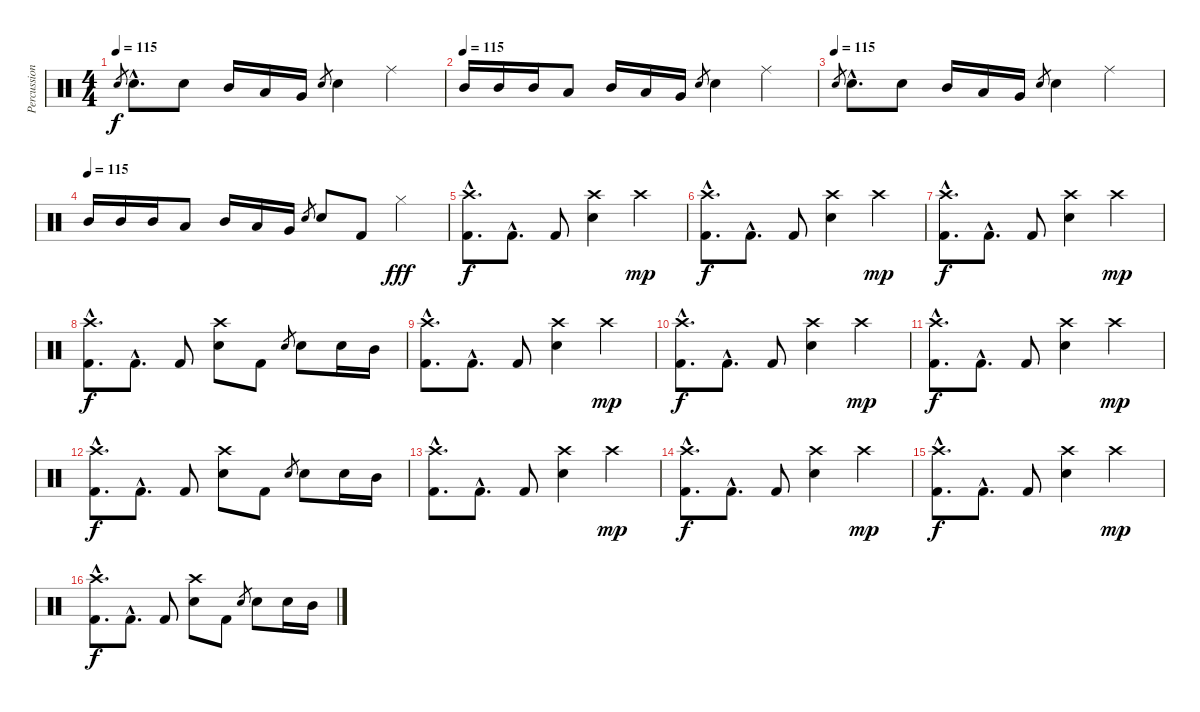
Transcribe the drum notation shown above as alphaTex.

\track ("Percussion" "Percussion") {instrument percussion}
\staff {score}
\articulation defaults
\ts (4 4)
\tempo 115
\clef neutral
\ks c "Electric Snare (hit)".8{gr dy f} "Electric Snare (hit)"{hac}.8{d} "Electric Snare (hit)".8 "Mid Tom (hit)".16 "Low Tom (hit)".16 "Very Low Tom (hit)".16 "Electric Snare (hit)".8{gr} "Electric Snare (hit)".4 "Ride (middle)".4
|
\tempo (115)
"Mid Tom (hit)".16 "Mid Tom (hit)".16 "Mid Tom (hit)".16 "Low Tom (hit)".8 "Mid Tom (hit)".16 "Low Tom (hit)".16 "Very Low Tom (hit)".16 "Electric Snare (hit)".8{gr} "Electric Snare (hit)".4 "Ride (middle)".4 |
\tempo (115)
"Electric Snare (hit)".8{gr} "Electric Snare (hit)"{hac}.8{d} "Electric Snare (hit)".8 "Mid Tom (hit)".16 "Low Tom (hit)".16 "Very Low Tom (hit)".16 "Electric Snare (hit)".8{gr} "Electric Snare (hit)".4 "Ride (middle)".4 |
\tempo (115)
"Mid Tom (hit)".16 "Mid Tom (hit)".16 "Mid Tom (hit)".16 "Low Tom (hit)".8 "Mid Tom (hit)".16 "Low Tom (hit)".16 "Very Low Tom (hit)".16 "Electric Snare (hit)".8{gr} "Electric Snare (hit)".8 "Kick (hit) 2".8 "Hi-Hat (closed)".4{dy fff} |
("Crash high (hit)"{hac} "Kick (hit) 2"{hac}).8{d dy f} "Kick (hit) 2"{hac}.8{d} "Kick (hit) 2".8 ("Crash high (hit)" "Electric Snare (hit)").4 "Crash high (hit)".4{dy mp} |
("Crash high (hit)"{hac} "Kick (hit) 2"{hac}).8{d dy f} "Kick (hit) 2"{hac}.8{d} "Kick (hit) 2".8 ("Crash high (hit)" "Electric Snare (hit)").4 "Crash high (hit)".4{dy mp} |
("Crash high (hit)"{hac} "Kick (hit) 2"{hac}).8{d dy f} "Kick (hit) 2"{hac}.8{d} "Kick (hit) 2".8 ("Crash high (hit)" "Electric Snare (hit)").4 "Crash high (hit)".4{dy mp} |
("Crash high (hit)"{hac} "Kick (hit) 2"{hac}).8{d dy f} "Kick (hit) 2"{hac}.8{d} "Kick (hit) 2".8 ("Crash high (hit)" "Electric Snare (hit)").8 "Kick (hit) 2".8 "Electric Snare (hit)".8{gr} "Electric Snare (hit)".8 "Electric Snare (hit)".16 "Mid Tom (hit)".16 |
("Crash high (hit)"{hac} "Kick (hit) 2"{hac}).8{d} "Kick (hit) 2"{hac}.8{d} "Kick (hit) 2".8 ("Crash high (hit)" "Electric Snare (hit)").4 "Crash high (hit)".4{dy mp} |
("Crash high (hit)"{hac} "Kick (hit) 2"{hac}).8{d dy f} "Kick (hit) 2"{hac}.8{d} "Kick (hit) 2".8 ("Crash high (hit)" "Electric Snare (hit)").4 "Crash high (hit)".4{dy mp} |
("Crash high (hit)"{hac} "Kick (hit) 2"{hac}).8{d dy f} "Kick (hit) 2"{hac}.8{d} "Kick (hit) 2".8 ("Crash high (hit)" "Electric Snare (hit)").4 "Crash high (hit)".4{dy mp} |
("Crash high (hit)"{hac} "Kick (hit) 2"{hac}).8{d dy f} "Kick (hit) 2"{hac}.8{d} "Kick (hit) 2".8 ("Crash high (hit)" "Electric Snare (hit)").8 "Kick (hit) 2".8 "Electric Snare (hit)".8{gr} "Electric Snare (hit)".8 "Electric Snare (hit)".16 "Mid Tom (hit)".16 |
("Crash high (hit)"{hac} "Kick (hit) 2"{hac}).8{d} "Kick (hit) 2"{hac}.8{d} "Kick (hit) 2".8 ("Crash high (hit)" "Electric Snare (hit)").4 "Crash high (hit)".4{dy mp} |
("Crash high (hit)"{hac} "Kick (hit) 2"{hac}).8{d dy f} "Kick (hit) 2"{hac}.8{d} "Kick (hit) 2".8 ("Crash high (hit)" "Electric Snare (hit)").4 "Crash high (hit)".4{dy mp} |
("Crash high (hit)"{hac} "Kick (hit) 2"{hac}).8{d dy f} "Kick (hit) 2"{hac}.8{d} "Kick (hit) 2".8 ("Crash high (hit)" "Electric Snare (hit)").4 "Crash high (hit)".4{dy mp} |
("Crash high (hit)"{hac} "Kick (hit) 2"{hac}).8{d dy f} "Kick (hit) 2"{hac}.8{d} "Kick (hit) 2".8 ("Crash high (hit)" "Electric Snare (hit)").8 "Kick (hit) 2".8 "Electric Snare (hit)".8{gr} "Electric Snare (hit)".8 "Electric Snare (hit)".16 "Mid Tom (hit)".16
